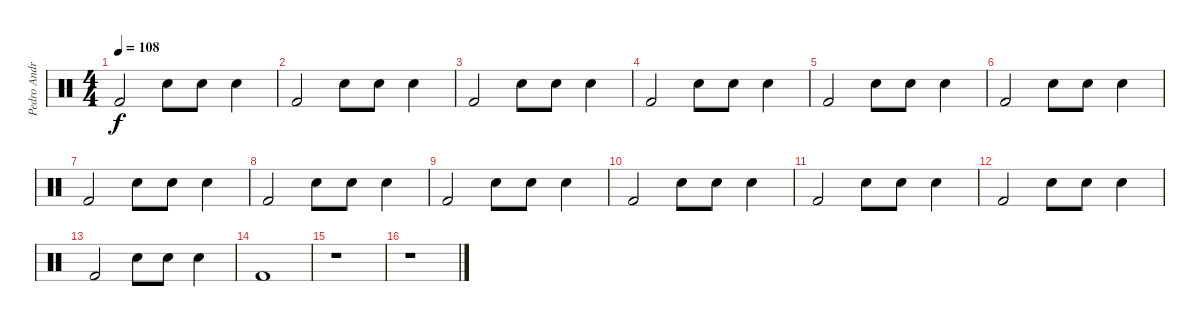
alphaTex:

\track ("Pedro Andreu" "Pedro Andr") {instrument percussion}
\staff {score}
\articulation defaults
\ts (4 4)
\tempo 108
\clef neutral
\ks c "Kick (hit) 2".2{dy f} "Snare (hit) 2".8 "Snare (hit) 2".8 "Snare (hit) 2".4
|
"Kick (hit) 2".2 "Snare (hit) 2".8 "Snare (hit) 2".8 "Snare (hit) 2".4 |
"Kick (hit) 2".2 "Snare (hit) 2".8 "Snare (hit) 2".8 "Snare (hit) 2".4 |
"Kick (hit) 2".2 "Snare (hit) 2".8 "Snare (hit) 2".8 "Snare (hit) 2".4 |
"Kick (hit) 2".2 "Snare (hit) 2".8 "Snare (hit) 2".8 "Snare (hit) 2".4 |
"Kick (hit) 2".2 "Snare (hit) 2".8 "Snare (hit) 2".8 "Snare (hit) 2".4 |
"Kick (hit) 2".2 "Snare (hit) 2".8 "Snare (hit) 2".8 "Snare (hit) 2".4 |
"Kick (hit) 2".2 "Snare (hit) 2".8 "Snare (hit) 2".8 "Snare (hit) 2".4 |
"Kick (hit) 2".2 "Snare (hit) 2".8 "Snare (hit) 2".8 "Snare (hit) 2".4 |
"Kick (hit) 2".2 "Snare (hit) 2".8 "Snare (hit) 2".8 "Snare (hit) 2".4 |
"Kick (hit) 2".2 "Snare (hit) 2".8 "Snare (hit) 2".8 "Snare (hit) 2".4 |
"Kick (hit) 2".2 "Snare (hit) 2".8 "Snare (hit) 2".8 "Snare (hit) 2".4 |
"Kick (hit) 2".2 "Snare (hit) 2".8 "Snare (hit) 2".8 "Snare (hit) 2".4 |
"Kick (hit) 2".1 |
r.1 |
r.1
